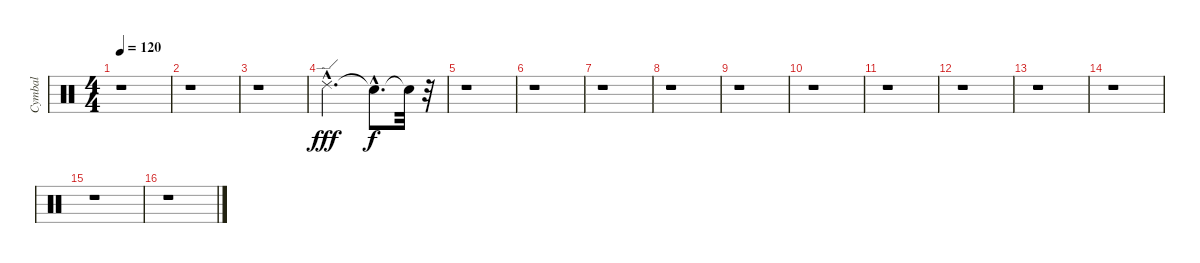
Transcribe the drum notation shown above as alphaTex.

\track ("Cymbal" "Cymbal") {instrument percussion}
\staff {score}
\articulation defaults
\ts (4 4)
\tempo 120
\clef neutral
\ks c
r.1{dy f} |
r.1 |
r.1 |
"Ride (edge) 2"{hac}.2{d dy fff} "Snare (hit)"{hac t}.8{d dy f} "Snare (hit)"{t}.32 r.32 |
r.1 |
r.1 |
r.1 |
r.1 |
r.1 |
r.1 |
r.1 |
r.1 |
r.1 |
r.1 |
r.1 |
r.1
